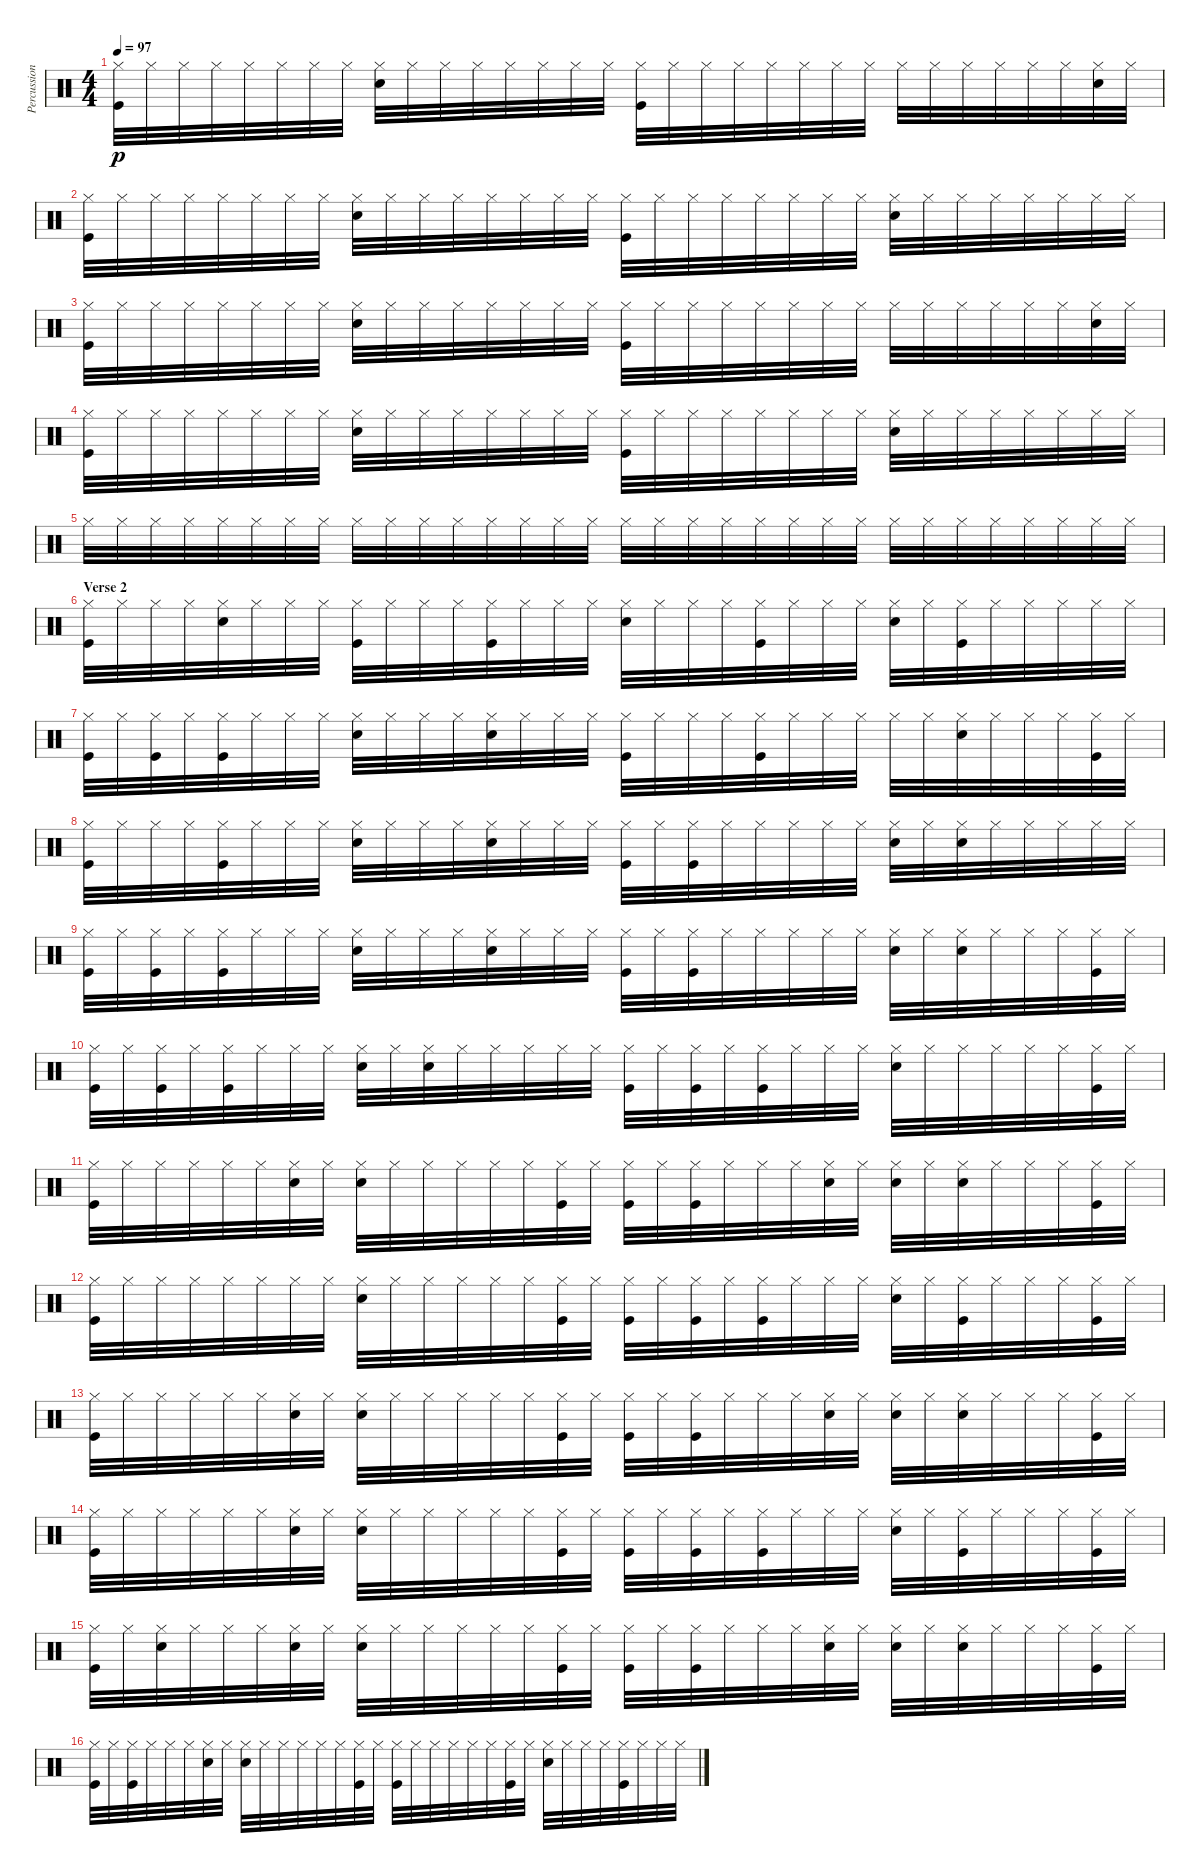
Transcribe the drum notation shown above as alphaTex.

\track ("Percussion" "Percussion") {instrument percussion}
\staff {score}
\articulation defaults
\ts (4 4)
\tempo 97
\clef neutral
\ks c
("Hi-Hat (closed)" "Kick (hit)").32{dy p} "Hi-Hat (closed)".32 "Hi-Hat (closed)".32 "Hi-Hat (closed)".32 "Hi-Hat (closed)".32 "Hi-Hat (closed)".32 "Hi-Hat (closed)".32 "Hi-Hat (closed)".32 ("Hi-Hat (closed)" "Electric Snare (hit)").32 "Hi-Hat (closed)".32 "Hi-Hat (closed)".32 "Hi-Hat (closed)".32 "Hi-Hat (closed)".32 "Hi-Hat (closed)".32 "Hi-Hat (closed)".32 "Hi-Hat (closed)".32 ("Hi-Hat (closed)" "Kick (hit)").32 "Hi-Hat (closed)".32 "Hi-Hat (closed)".32 "Hi-Hat (closed)".32 "Hi-Hat (closed)".32 "Hi-Hat (closed)".32 "Hi-Hat (closed)".32 "Hi-Hat (closed)".32 "Hi-Hat (closed)".32 "Hi-Hat (closed)".32 "Hi-Hat (closed)".32 "Hi-Hat (closed)".32 "Hi-Hat (closed)".32 "Hi-Hat (closed)".32 ("Hi-Hat (closed)" "Electric Snare (hit)").32 "Hi-Hat (closed)".32 |
("Hi-Hat (closed)" "Kick (hit)").32 "Hi-Hat (closed)".32 "Hi-Hat (closed)".32 "Hi-Hat (closed)".32 "Hi-Hat (closed)".32 "Hi-Hat (closed)".32 "Hi-Hat (closed)".32 "Hi-Hat (closed)".32 ("Hi-Hat (closed)" "Electric Snare (hit)").32 "Hi-Hat (closed)".32 "Hi-Hat (closed)".32 "Hi-Hat (closed)".32 "Hi-Hat (closed)".32 "Hi-Hat (closed)".32 "Hi-Hat (closed)".32 "Hi-Hat (closed)".32 ("Hi-Hat (closed)" "Kick (hit)").32 "Hi-Hat (closed)".32 "Hi-Hat (closed)".32 "Hi-Hat (closed)".32 "Hi-Hat (closed)".32 "Hi-Hat (closed)".32 "Hi-Hat (closed)".32 "Hi-Hat (closed)".32 ("Hi-Hat (closed)" "Electric Snare (hit)").32 "Hi-Hat (closed)".32 "Hi-Hat (closed)".32 "Hi-Hat (closed)".32 "Hi-Hat (closed)".32 "Hi-Hat (closed)".32 "Hi-Hat (closed)".32 "Hi-Hat (closed)".32 |
("Hi-Hat (closed)" "Kick (hit)").32 "Hi-Hat (closed)".32 "Hi-Hat (closed)".32 "Hi-Hat (closed)".32 "Hi-Hat (closed)".32 "Hi-Hat (closed)".32 "Hi-Hat (closed)".32 "Hi-Hat (closed)".32 ("Hi-Hat (closed)" "Electric Snare (hit)").32 "Hi-Hat (closed)".32 "Hi-Hat (closed)".32 "Hi-Hat (closed)".32 "Hi-Hat (closed)".32 "Hi-Hat (closed)".32 "Hi-Hat (closed)".32 "Hi-Hat (closed)".32 ("Hi-Hat (closed)" "Kick (hit)").32 "Hi-Hat (closed)".32 "Hi-Hat (closed)".32 "Hi-Hat (closed)".32 "Hi-Hat (closed)".32 "Hi-Hat (closed)".32 "Hi-Hat (closed)".32 "Hi-Hat (closed)".32 "Hi-Hat (closed)".32 "Hi-Hat (closed)".32 "Hi-Hat (closed)".32 "Hi-Hat (closed)".32 "Hi-Hat (closed)".32 "Hi-Hat (closed)".32 ("Hi-Hat (closed)" "Electric Snare (hit)").32 "Hi-Hat (closed)".32 |
("Hi-Hat (closed)" "Kick (hit)").32 "Hi-Hat (closed)".32 "Hi-Hat (closed)".32 "Hi-Hat (closed)".32 "Hi-Hat (closed)".32 "Hi-Hat (closed)".32 "Hi-Hat (closed)".32 "Hi-Hat (closed)".32 ("Hi-Hat (closed)" "Electric Snare (hit)").32 "Hi-Hat (closed)".32 "Hi-Hat (closed)".32 "Hi-Hat (closed)".32 "Hi-Hat (closed)".32 "Hi-Hat (closed)".32 "Hi-Hat (closed)".32 "Hi-Hat (closed)".32 ("Hi-Hat (closed)" "Kick (hit)").32 "Hi-Hat (closed)".32 "Hi-Hat (closed)".32 "Hi-Hat (closed)".32 "Hi-Hat (closed)".32 "Hi-Hat (closed)".32 "Hi-Hat (closed)".32 "Hi-Hat (closed)".32 ("Hi-Hat (closed)" "Electric Snare (hit)").32 "Hi-Hat (closed)".32 "Hi-Hat (closed)".32 "Hi-Hat (closed)".32 "Hi-Hat (closed)".32 "Hi-Hat (closed)".32 "Hi-Hat (closed)".32 "Hi-Hat (closed)".32 |
"Hi-Hat (closed)".32 "Hi-Hat (closed)".32 "Hi-Hat (closed)".32 "Hi-Hat (closed)".32 "Hi-Hat (closed)".32 "Hi-Hat (closed)".32 "Hi-Hat (closed)".32 "Hi-Hat (closed)".32 "Hi-Hat (closed)".32 "Hi-Hat (closed)".32 "Hi-Hat (closed)".32 "Hi-Hat (closed)".32 "Hi-Hat (closed)".32 "Hi-Hat (closed)".32 "Hi-Hat (closed)".32 "Hi-Hat (closed)".32 "Hi-Hat (closed)".32 "Hi-Hat (closed)".32 "Hi-Hat (closed)".32 "Hi-Hat (closed)".32 "Hi-Hat (closed)".32 "Hi-Hat (closed)".32 "Hi-Hat (closed)".32 "Hi-Hat (closed)".32 "Hi-Hat (closed)".32 "Hi-Hat (closed)".32 "Hi-Hat (closed)".32 "Hi-Hat (closed)".32 "Hi-Hat (closed)".32 "Hi-Hat (closed)".32 "Hi-Hat (closed)".32 "Hi-Hat (closed)".32 |
\section ("" "Verse 2")
("Hi-Hat (closed)" "Kick (hit)").32 "Hi-Hat (closed)".32 "Hi-Hat (closed)".32 "Hi-Hat (closed)".32 ("Hi-Hat (closed)" "Electric Snare (hit)").32 "Hi-Hat (closed)".32 "Hi-Hat (closed)".32 "Hi-Hat (closed)".32 ("Hi-Hat (closed)" "Kick (hit)").32 "Hi-Hat (closed)".32 "Hi-Hat (closed)".32 "Hi-Hat (closed)".32 ("Hi-Hat (closed)" "Kick (hit)").32 "Hi-Hat (closed)".32 "Hi-Hat (closed)".32 "Hi-Hat (closed)".32 ("Hi-Hat (closed)" "Electric Snare (hit)").32 "Hi-Hat (closed)".32 "Hi-Hat (closed)".32 "Hi-Hat (closed)".32 ("Hi-Hat (closed)" "Kick (hit)").32 "Hi-Hat (closed)".32 "Hi-Hat (closed)".32 "Hi-Hat (closed)".32 ("Hi-Hat (closed)" "Electric Snare (hit)").32 "Hi-Hat (closed)".32 ("Hi-Hat (closed)" "Kick (hit)").32 "Hi-Hat (closed)".32 "Hi-Hat (closed)".32 "Hi-Hat (closed)".32 "Hi-Hat (closed)".32 "Hi-Hat (closed)".32 |
("Hi-Hat (closed)" "Kick (hit)").32 "Hi-Hat (closed)".32 ("Hi-Hat (closed)" "Kick (hit)").32 "Hi-Hat (closed)".32 ("Hi-Hat (closed)" "Kick (hit)").32 "Hi-Hat (closed)".32 "Hi-Hat (closed)".32 "Hi-Hat (closed)".32 ("Hi-Hat (closed)" "Electric Snare (hit)").32 "Hi-Hat (closed)".32 "Hi-Hat (closed)".32 "Hi-Hat (closed)".32 ("Hi-Hat (closed)" "Electric Snare (hit)").32 "Hi-Hat (closed)".32 "Hi-Hat (closed)".32 "Hi-Hat (closed)".32 ("Hi-Hat (closed)" "Kick (hit)").32 "Hi-Hat (closed)".32 "Hi-Hat (closed)".32 "Hi-Hat (closed)".32 ("Hi-Hat (closed)" "Kick (hit)").32 "Hi-Hat (closed)".32 "Hi-Hat (closed)".32 "Hi-Hat (closed)".32 "Hi-Hat (closed)".32 "Hi-Hat (closed)".32 ("Hi-Hat (closed)" "Electric Snare (hit)").32 "Hi-Hat (closed)".32 "Hi-Hat (closed)".32 "Hi-Hat (closed)".32 ("Hi-Hat (closed)" "Kick (hit)").32 "Hi-Hat (closed)".32 |
("Hi-Hat (closed)" "Kick (hit)").32 "Hi-Hat (closed)".32 "Hi-Hat (closed)".32 "Hi-Hat (closed)".32 ("Hi-Hat (closed)" "Kick (hit)").32 "Hi-Hat (closed)".32 "Hi-Hat (closed)".32 "Hi-Hat (closed)".32 ("Hi-Hat (closed)" "Electric Snare (hit)").32 "Hi-Hat (closed)".32 "Hi-Hat (closed)".32 "Hi-Hat (closed)".32 ("Hi-Hat (closed)" "Electric Snare (hit)").32 "Hi-Hat (closed)".32 "Hi-Hat (closed)".32 "Hi-Hat (closed)".32 ("Hi-Hat (closed)" "Kick (hit)").32 "Hi-Hat (closed)".32 ("Hi-Hat (closed)" "Kick (hit)").32 "Hi-Hat (closed)".32 "Hi-Hat (closed)".32 "Hi-Hat (closed)".32 "Hi-Hat (closed)".32 "Hi-Hat (closed)".32 ("Hi-Hat (closed)" "Electric Snare (hit)").32 "Hi-Hat (closed)".32 ("Hi-Hat (closed)" "Electric Snare (hit)").32 "Hi-Hat (closed)".32 "Hi-Hat (closed)".32 "Hi-Hat (closed)".32 "Hi-Hat (closed)".32 "Hi-Hat (closed)".32 |
("Hi-Hat (closed)" "Kick (hit)").32 "Hi-Hat (closed)".32 ("Hi-Hat (closed)" "Kick (hit)").32 "Hi-Hat (closed)".32 ("Hi-Hat (closed)" "Kick (hit)").32 "Hi-Hat (closed)".32 "Hi-Hat (closed)".32 "Hi-Hat (closed)".32 ("Hi-Hat (closed)" "Electric Snare (hit)").32 "Hi-Hat (closed)".32 "Hi-Hat (closed)".32 "Hi-Hat (closed)".32 ("Hi-Hat (closed)" "Electric Snare (hit)").32 "Hi-Hat (closed)".32 "Hi-Hat (closed)".32 "Hi-Hat (closed)".32 ("Hi-Hat (closed)" "Kick (hit)").32 "Hi-Hat (closed)".32 ("Hi-Hat (closed)" "Kick (hit)").32 "Hi-Hat (closed)".32 "Hi-Hat (closed)".32 "Hi-Hat (closed)".32 "Hi-Hat (closed)".32 "Hi-Hat (closed)".32 ("Hi-Hat (closed)" "Electric Snare (hit)").32 "Hi-Hat (closed)".32 ("Hi-Hat (closed)" "Electric Snare (hit)").32 "Hi-Hat (closed)".32 "Hi-Hat (closed)".32 "Hi-Hat (closed)".32 ("Hi-Hat (closed)" "Kick (hit)").32 "Hi-Hat (closed)".32 |
("Hi-Hat (closed)" "Kick (hit)").32 "Hi-Hat (closed)".32 ("Hi-Hat (closed)" "Kick (hit)").32 "Hi-Hat (closed)".32 ("Hi-Hat (closed)" "Kick (hit)").32 "Hi-Hat (closed)".32 "Hi-Hat (closed)".32 "Hi-Hat (closed)".32 ("Hi-Hat (closed)" "Electric Snare (hit)").32 "Hi-Hat (closed)".32 ("Hi-Hat (closed)" "Electric Snare (hit)").32 "Hi-Hat (closed)".32 "Hi-Hat (closed)".32 "Hi-Hat (closed)".32 "Hi-Hat (closed)".32 "Hi-Hat (closed)".32 ("Hi-Hat (closed)" "Kick (hit)").32 "Hi-Hat (closed)".32 ("Hi-Hat (closed)" "Kick (hit)").32 "Hi-Hat (closed)".32 ("Hi-Hat (closed)" "Kick (hit)").32 "Hi-Hat (closed)".32 "Hi-Hat (closed)".32 "Hi-Hat (closed)".32 ("Hi-Hat (closed)" "Electric Snare (hit)").32 "Hi-Hat (closed)".32 "Hi-Hat (closed)".32 "Hi-Hat (closed)".32 "Hi-Hat (closed)".32 "Hi-Hat (closed)".32 ("Hi-Hat (closed)" "Kick (hit)").32 "Hi-Hat (closed)".32 |
("Hi-Hat (closed)" "Kick (hit)").32 "Hi-Hat (closed)".32 "Hi-Hat (closed)".32 "Hi-Hat (closed)".32 "Hi-Hat (closed)".32 "Hi-Hat (closed)".32 ("Hi-Hat (closed)" "Electric Snare (hit)").32 "Hi-Hat (closed)".32 ("Hi-Hat (closed)" "Electric Snare (hit)").32 "Hi-Hat (closed)".32 "Hi-Hat (closed)".32 "Hi-Hat (closed)".32 "Hi-Hat (closed)".32 "Hi-Hat (closed)".32 ("Hi-Hat (closed)" "Kick (hit)").32 "Hi-Hat (closed)".32 ("Hi-Hat (closed)" "Kick (hit)").32 "Hi-Hat (closed)".32 ("Hi-Hat (closed)" "Kick (hit)").32 "Hi-Hat (closed)".32 "Hi-Hat (closed)".32 "Hi-Hat (closed)".32 ("Hi-Hat (closed)" "Electric Snare (hit)").32 "Hi-Hat (closed)".32 ("Hi-Hat (closed)" "Electric Snare (hit)").32 "Hi-Hat (closed)".32 ("Hi-Hat (closed)" "Electric Snare (hit)").32 "Hi-Hat (closed)".32 "Hi-Hat (closed)".32 "Hi-Hat (closed)".32 ("Hi-Hat (closed)" "Kick (hit)").32 "Hi-Hat (closed)".32 |
("Hi-Hat (closed)" "Kick (hit)").32 "Hi-Hat (closed)".32 "Hi-Hat (closed)".32 "Hi-Hat (closed)".32 "Hi-Hat (closed)".32 "Hi-Hat (closed)".32 "Hi-Hat (closed)".32 "Hi-Hat (closed)".32 ("Hi-Hat (closed)" "Electric Snare (hit)").32 "Hi-Hat (closed)".32 "Hi-Hat (closed)".32 "Hi-Hat (closed)".32 "Hi-Hat (closed)".32 "Hi-Hat (closed)".32 ("Hi-Hat (closed)" "Kick (hit)").32 "Hi-Hat (closed)".32 ("Hi-Hat (closed)" "Kick (hit)").32 "Hi-Hat (closed)".32 ("Hi-Hat (closed)" "Kick (hit)").32 "Hi-Hat (closed)".32 ("Hi-Hat (closed)" "Kick (hit)").32 "Hi-Hat (closed)".32 "Hi-Hat (closed)".32 "Hi-Hat (closed)".32 ("Hi-Hat (closed)" "Electric Snare (hit)").32 "Hi-Hat (closed)".32 ("Hi-Hat (closed)" "Kick (hit)").32 "Hi-Hat (closed)".32 "Hi-Hat (closed)".32 "Hi-Hat (closed)".32 ("Hi-Hat (closed)" "Kick (hit)").32 "Hi-Hat (closed)".32 |
("Hi-Hat (closed)" "Kick (hit)").32 "Hi-Hat (closed)".32 "Hi-Hat (closed)".32 "Hi-Hat (closed)".32 "Hi-Hat (closed)".32 "Hi-Hat (closed)".32 ("Hi-Hat (closed)" "Electric Snare (hit)").32 "Hi-Hat (closed)".32 ("Hi-Hat (closed)" "Electric Snare (hit)").32 "Hi-Hat (closed)".32 "Hi-Hat (closed)".32 "Hi-Hat (closed)".32 "Hi-Hat (closed)".32 "Hi-Hat (closed)".32 ("Hi-Hat (closed)" "Kick (hit)").32 "Hi-Hat (closed)".32 ("Hi-Hat (closed)" "Kick (hit)").32 "Hi-Hat (closed)".32 ("Hi-Hat (closed)" "Kick (hit)").32 "Hi-Hat (closed)".32 "Hi-Hat (closed)".32 "Hi-Hat (closed)".32 ("Hi-Hat (closed)" "Electric Snare (hit)").32 "Hi-Hat (closed)".32 ("Hi-Hat (closed)" "Electric Snare (hit)").32 "Hi-Hat (closed)".32 ("Hi-Hat (closed)" "Electric Snare (hit)").32 "Hi-Hat (closed)".32 "Hi-Hat (closed)".32 "Hi-Hat (closed)".32 ("Hi-Hat (closed)" "Kick (hit)").32 "Hi-Hat (closed)".32 |
("Hi-Hat (closed)" "Kick (hit)").32 "Hi-Hat (closed)".32 "Hi-Hat (closed)".32 "Hi-Hat (closed)".32 "Hi-Hat (closed)".32 "Hi-Hat (closed)".32 ("Hi-Hat (closed)" "Electric Snare (hit)").32 "Hi-Hat (closed)".32 ("Hi-Hat (closed)" "Electric Snare (hit)").32 "Hi-Hat (closed)".32 "Hi-Hat (closed)".32 "Hi-Hat (closed)".32 "Hi-Hat (closed)".32 "Hi-Hat (closed)".32 ("Hi-Hat (closed)" "Kick (hit)").32 "Hi-Hat (closed)".32 ("Hi-Hat (closed)" "Kick (hit)").32 "Hi-Hat (closed)".32 ("Hi-Hat (closed)" "Kick (hit)").32 "Hi-Hat (closed)".32 ("Hi-Hat (closed)" "Kick (hit)").32 "Hi-Hat (closed)".32 "Hi-Hat (closed)".32 "Hi-Hat (closed)".32 ("Hi-Hat (closed)" "Electric Snare (hit)").32 "Hi-Hat (closed)".32 ("Hi-Hat (closed)" "Kick (hit)").32 "Hi-Hat (closed)".32 "Hi-Hat (closed)".32 "Hi-Hat (closed)".32 ("Hi-Hat (closed)" "Kick (hit)").32 "Hi-Hat (closed)".32 |
("Hi-Hat (closed)" "Kick (hit)").32 "Hi-Hat (closed)".32 ("Hi-Hat (closed)" "Electric Snare (hit)").32 "Hi-Hat (closed)".32 "Hi-Hat (closed)".32 "Hi-Hat (closed)".32 ("Hi-Hat (closed)" "Electric Snare (hit)").32 "Hi-Hat (closed)".32 ("Hi-Hat (closed)" "Electric Snare (hit)").32 "Hi-Hat (closed)".32 "Hi-Hat (closed)".32 "Hi-Hat (closed)".32 "Hi-Hat (closed)".32 "Hi-Hat (closed)".32 ("Hi-Hat (closed)" "Kick (hit)").32 "Hi-Hat (closed)".32 ("Hi-Hat (closed)" "Kick (hit)").32 "Hi-Hat (closed)".32 ("Hi-Hat (closed)" "Kick (hit)").32 "Hi-Hat (closed)".32 "Hi-Hat (closed)".32 "Hi-Hat (closed)".32 ("Hi-Hat (closed)" "Electric Snare (hit)").32 "Hi-Hat (closed)".32 ("Hi-Hat (closed)" "Electric Snare (hit)").32 "Hi-Hat (closed)".32 ("Hi-Hat (closed)" "Electric Snare (hit)").32 "Hi-Hat (closed)".32 "Hi-Hat (closed)".32 "Hi-Hat (closed)".32 ("Hi-Hat (closed)" "Kick (hit)").32 "Hi-Hat (closed)".32 |
("Hi-Hat (closed)" "Kick (hit)").32 "Hi-Hat (closed)".32 ("Hi-Hat (closed)" "Kick (hit)").32 "Hi-Hat (closed)".32 "Hi-Hat (closed)".32 "Hi-Hat (closed)".32 ("Hi-Hat (closed)" "Electric Snare (hit)").32 "Hi-Hat (closed)".32 ("Hi-Hat (closed)" "Electric Snare (hit)").32 "Hi-Hat (closed)".32 "Hi-Hat (closed)".32 "Hi-Hat (closed)".32 "Hi-Hat (closed)".32 "Hi-Hat (closed)".32 ("Hi-Hat (closed)" "Kick (hit)").32 "Hi-Hat (closed)".32 ("Hi-Hat (closed)" "Kick (hit)").32 "Hi-Hat (closed)".32 "Hi-Hat (closed)".32 "Hi-Hat (closed)".32 "Hi-Hat (closed)".32 "Hi-Hat (closed)".32 ("Hi-Hat (closed)" "Kick (hit)").32 "Hi-Hat (closed)".32 ("Hi-Hat (closed)" "Electric Snare (hit)").32 "Hi-Hat (closed)".32 "Hi-Hat (closed)".32 "Hi-Hat (closed)".32 ("Hi-Hat (closed)" "Kick (hit)").32 "Hi-Hat (closed)".32 "Hi-Hat (closed)".32 "Hi-Hat (closed)".32
